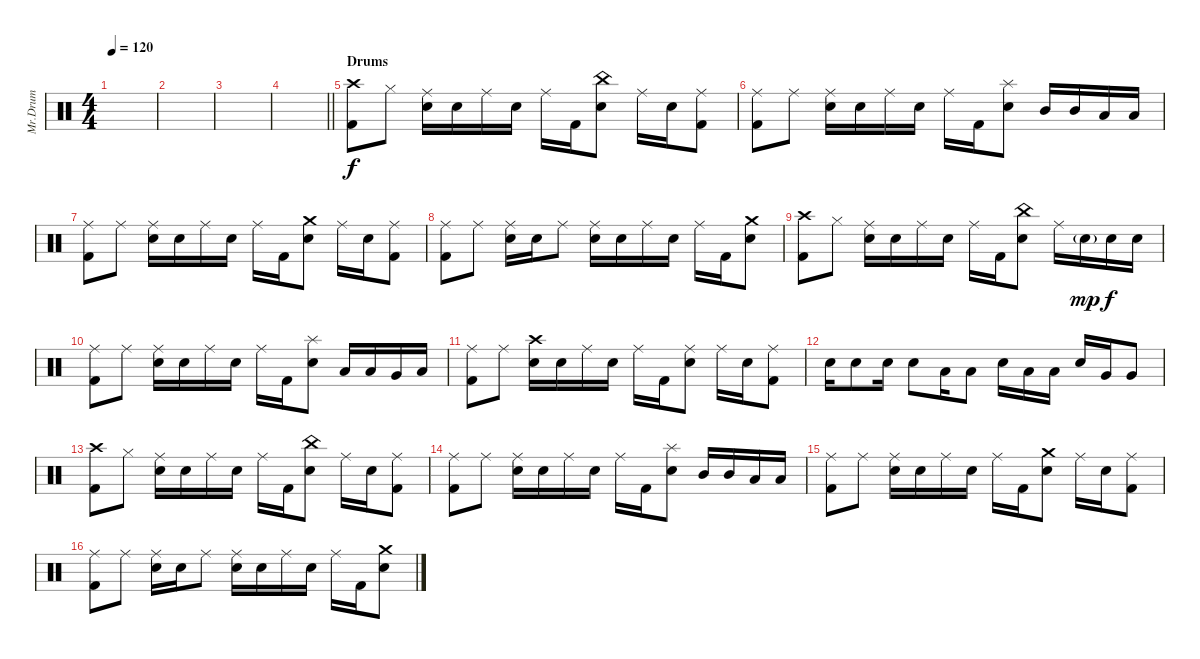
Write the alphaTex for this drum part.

\track ("Mr.Drum" "Mr.Drum") {instrument percussion}
\staff {score}
\articulation defaults
\ts (4 4)
\tempo 120
\clef neutral
\ks c
|
|
|
\barLineRight lightlight
|
\section ("" "Drums")
("Crash high (hit)" "Kick (hit) 2").8 "Hi-Hat (closed)".8 ("Ride (middle)" "Electric Snare (hit)").16 "Electric Snare (hit)".16 "Ride (middle)".16 "Electric Snare (hit)".16 "Ride (middle)".16 "Kick (hit) 2".16 ("China (hit)" "Electric Snare (hit)").8 "Ride (middle)".16 "Electric Snare (hit)".16 ("Ride (middle)" "Kick (hit) 2").8 |
("Ride (middle)" "Kick (hit) 2").8 "Ride (middle)".8 ("Ride (middle)" "Electric Snare (hit)").16 "Electric Snare (hit)".16 "Ride (middle)".16 "Electric Snare (hit)".16 "Ride (middle)".16 "Kick (hit) 2".16 ("Splash (hit)" "Electric Snare (hit)").8 "Mid Tom (hit)".16 "Mid Tom (hit)".16 "Low Tom (hit)".16 "Low Tom (hit)".16 |
("Ride (middle)" "Kick (hit) 2").8 "Ride (middle)".8 ("Ride (middle)" "Electric Snare (hit)").16 "Electric Snare (hit)".16 "Ride (middle)".16 "Electric Snare (hit)".16 "Ride (middle)".16 "Kick (hit) 2".16 ("Crash medium (hit)" "Electric Snare (hit)").8 "Ride (middle)".16 "Electric Snare (hit)".16 ("Ride (middle)" "Kick (hit) 2").8 |
("Ride (middle)" "Kick (hit) 2").8 "Ride (middle)".8 ("Ride (middle)" "Electric Snare (hit)").16 "Electric Snare (hit)".16 "Ride (middle)".8 ("Ride (middle)" "Electric Snare (hit)").16 "Electric Snare (hit)".16 "Ride (middle)".16 "Electric Snare (hit)".16 "Ride (middle)".16 "Kick (hit) 2".16 ("Crash medium (hit)" "Electric Snare (hit)").8 |
("Crash high (hit)" "Kick (hit) 2").8 "Hi-Hat (closed)".8 ("Ride (middle)" "Electric Snare (hit)").16 "Electric Snare (hit)".16 "Ride (middle)".16 "Electric Snare (hit)".16 "Ride (middle)".16 "Kick (hit) 2".16 ("China (hit)" "Electric Snare (hit)").8 "Ride (middle)".16 "Electric Snare (hit)"{g}.16{dy mp} "Electric Snare (hit)".16{dy f} "Electric Snare (hit)".16 |
("Ride (middle)" "Kick (hit) 2").8 "Ride (middle)".8 ("Ride (middle)" "Electric Snare (hit)").16 "Electric Snare (hit)".16 "Ride (middle)".16 "Electric Snare (hit)".16 "Ride (middle)".16 "Kick (hit) 2".16 ("Splash (hit)" "Electric Snare (hit)").8 "Low Tom (hit)".16 "Low Tom (hit)".16 "Very Low Tom (hit)".16 "Low Tom (hit)".16 |
("Ride (middle)" "Kick (hit) 2").8 "Ride (middle)".8 ("Crash high (hit)" "Electric Snare (hit)").16 "Electric Snare (hit)".16 "Ride (middle)".16 "Electric Snare (hit)".16 "Ride (middle)".16 "Kick (hit) 2".16 ("Ride (middle)" "Electric Snare (hit)").8 "Ride (middle)".16 "Electric Snare (hit)".16 ("Ride (middle)" "Kick (hit) 2").8 |
"Electric Snare (hit)".16 "Electric Snare (hit)".8 "Electric Snare (hit)".16 "Electric Snare (hit)".8 "Low Tom (hit)".16 "Low Tom (hit)".8 "Electric Snare (hit)".16 "Low Tom (hit)".16 "Low Tom (hit)".16 "Electric Snare (hit)".16 "Very Low Tom (hit)".16 "Very Low Tom (hit)".8 |
("Crash high (hit)" "Kick (hit) 2").8 "Hi-Hat (closed)".8 ("Ride (middle)" "Electric Snare (hit)").16 "Electric Snare (hit)".16 "Ride (middle)".16 "Electric Snare (hit)".16 "Ride (middle)".16 "Kick (hit) 2".16 ("China (hit)" "Electric Snare (hit)").8 "Ride (middle)".16 "Electric Snare (hit)".16 ("Ride (middle)" "Kick (hit) 2").8 |
("Ride (middle)" "Kick (hit) 2").8 "Ride (middle)".8 ("Ride (middle)" "Electric Snare (hit)").16 "Electric Snare (hit)".16 "Ride (middle)".16 "Electric Snare (hit)".16 "Ride (middle)".16 "Kick (hit) 2".16 ("Splash (hit)" "Electric Snare (hit)").8 "Mid Tom (hit)".16 "Mid Tom (hit)".16 "Low Tom (hit)".16 "Low Tom (hit)".16 |
("Ride (middle)" "Kick (hit) 2").8 "Ride (middle)".8 ("Ride (middle)" "Electric Snare (hit)").16 "Electric Snare (hit)".16 "Ride (middle)".16 "Electric Snare (hit)".16 "Ride (middle)".16 "Kick (hit) 2".16 ("Crash medium (hit)" "Electric Snare (hit)").8 "Ride (middle)".16 "Electric Snare (hit)".16 ("Ride (middle)" "Kick (hit) 2").8 |
("Ride (middle)" "Kick (hit) 2").8 "Ride (middle)".8 ("Ride (middle)" "Electric Snare (hit)").16 "Electric Snare (hit)".16 "Ride (middle)".8 ("Ride (middle)" "Electric Snare (hit)").16 "Electric Snare (hit)".16 "Ride (middle)".16 "Electric Snare (hit)".16 "Ride (middle)".16 "Kick (hit) 2".16 ("Crash medium (hit)" "Electric Snare (hit)").8
